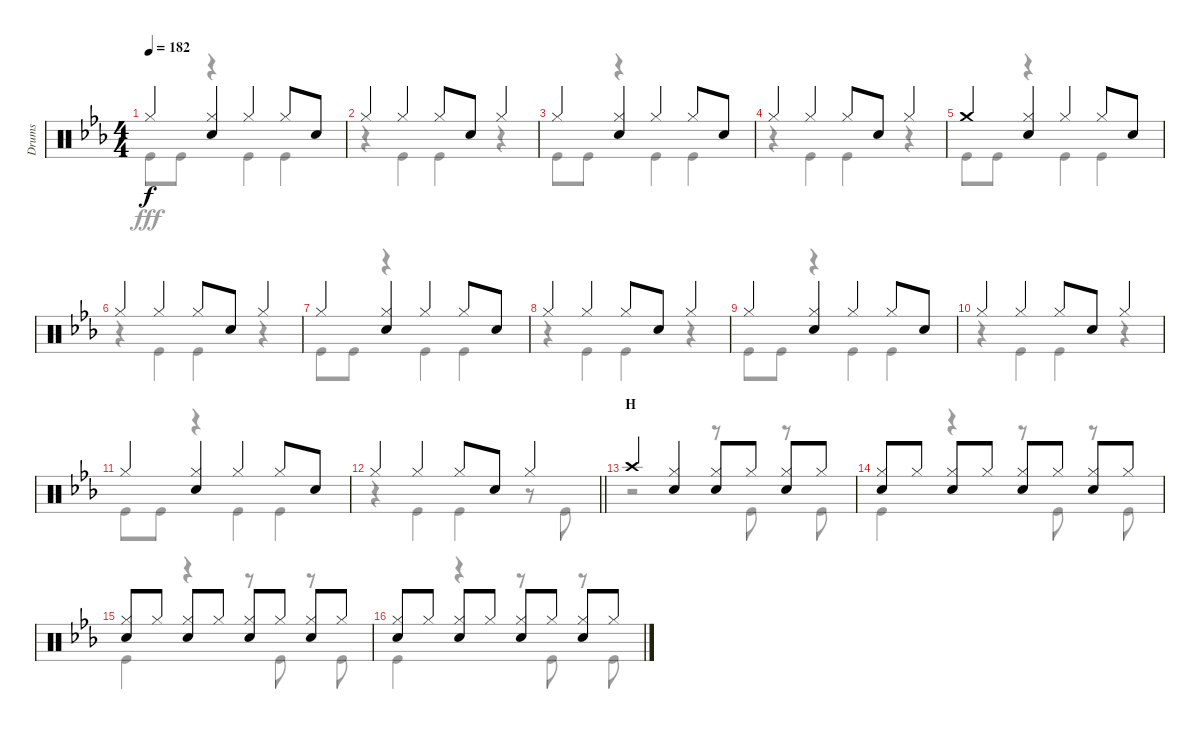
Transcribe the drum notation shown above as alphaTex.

\track ("Drums" "Drums") {instrument percussion}
\staff {score}
\articulation defaults
\voice
\ts (4 4)
\tempo 182
\clef neutral
\ks eb "Hi-Hat (closed)".4{dy f}
("Hi-Hat (closed)" "Snare (hit) 2").4 "Hi-Hat (closed)".4 "Hi-Hat (closed)".8 "Snare (hit) 2".8 |
"Hi-Hat (closed)".4 "Hi-Hat (closed)".4 "Hi-Hat (closed)".8 "Snare (hit) 2".8 "Hi-Hat (closed)".4 |
"Hi-Hat (closed)".4 ("Hi-Hat (closed)" "Snare (hit) 2").4 "Hi-Hat (closed)".4 "Hi-Hat (closed)".8 "Snare (hit) 2".8 |
"Hi-Hat (closed)".4 "Hi-Hat (closed)".4 "Hi-Hat (closed)".8 "Snare (hit) 2".8 "Hi-Hat (closed)".4 |
"Crash medium (hit)".4 ("Hi-Hat (closed)" "Snare (hit) 2").4 "Hi-Hat (closed)".4 "Hi-Hat (closed)".8 "Snare (hit) 2".8 |
"Hi-Hat (closed)".4 "Hi-Hat (closed)".4 "Hi-Hat (closed)".8 "Snare (hit) 2".8 "Hi-Hat (closed)".4 |
"Hi-Hat (closed)".4 ("Hi-Hat (closed)" "Snare (hit) 2").4 "Hi-Hat (closed)".4 "Hi-Hat (closed)".8 "Snare (hit) 2".8 |
"Hi-Hat (closed)".4 "Hi-Hat (closed)".4 "Hi-Hat (closed)".8 "Snare (hit) 2".8 "Hi-Hat (closed)".4 |
"Hi-Hat (closed)".4 ("Hi-Hat (closed)" "Snare (hit) 2").4 "Hi-Hat (closed)".4 "Hi-Hat (closed)".8 "Snare (hit) 2".8 |
"Hi-Hat (closed)".4 "Hi-Hat (closed)".4 "Hi-Hat (closed)".8 "Snare (hit) 2".8 "Hi-Hat (closed)".4 |
"Hi-Hat (closed)".4 ("Hi-Hat (closed)" "Snare (hit) 2").4 "Hi-Hat (closed)".4 "Hi-Hat (closed)".8 "Snare (hit) 2".8 |
\barLineRight lightlight "Hi-Hat (closed)".4 "Hi-Hat (closed)".4 "Hi-Hat (closed)".8 "Snare (hit) 2".8 "Hi-Hat (closed)".4
|
\section ("" "H")
"Crash high (hit)".4 ("Hi-Hat (closed)" "Snare (hit) 2").4 ("Hi-Hat (closed)" "Snare (hit) 2").8 "Hi-Hat (closed)".8 ("Hi-Hat (closed)" "Snare (hit) 2").8 "Hi-Hat (closed)".8 |
("Hi-Hat (closed)" "Snare (hit) 2").8 "Hi-Hat (closed)".8 ("Hi-Hat (closed)" "Snare (hit) 2").8 "Hi-Hat (closed)".8 ("Hi-Hat (closed)" "Snare (hit) 2").8 "Hi-Hat (closed)".8 ("Hi-Hat (closed)" "Snare (hit) 2").8 "Hi-Hat (closed)".8 |
("Hi-Hat (closed)" "Snare (hit) 2").8 "Hi-Hat (closed)".8 ("Hi-Hat (closed)" "Snare (hit) 2").8 "Hi-Hat (closed)".8 ("Hi-Hat (closed)" "Snare (hit) 2").8 "Hi-Hat (closed)".8 ("Hi-Hat (closed)" "Snare (hit) 2").8 "Hi-Hat (closed)".8 |
("Hi-Hat (closed)" "Snare (hit) 2").8 "Hi-Hat (closed)".8 ("Hi-Hat (closed)" "Snare (hit) 2").8 "Hi-Hat (closed)".8 ("Hi-Hat (closed)" "Snare (hit) 2").8 "Hi-Hat (closed)".8 ("Hi-Hat (closed)" "Snare (hit) 2").8 "Hi-Hat (closed)".8
\voice
\clef neutral
\ottava regular
\simile none
\ks eb "Kick (hit)".8{dy fff} "Kick (hit)".8
r.4 "Kick (hit)".4 "Kick (hit)".4 |
r.4 "Kick (hit)".4 "Kick (hit)".4 r.4 |
"Kick (hit)".8 "Kick (hit)".8 r.4 "Kick (hit)".4 "Kick (hit)".4 |
r.4 "Kick (hit)".4 "Kick (hit)".4 r.4 |
"Kick (hit)".8 "Kick (hit)".8 r.4 "Kick (hit)".4 "Kick (hit)".4 |
r.4 "Kick (hit)".4 "Kick (hit)".4 r.4 |
"Kick (hit)".8 "Kick (hit)".8 r.4 "Kick (hit)".4 "Kick (hit)".4 |
r.4 "Kick (hit)".4 "Kick (hit)".4 r.4 |
"Kick (hit)".8 "Kick (hit)".8 r.4 "Kick (hit)".4 "Kick (hit)".4 |
r.4 "Kick (hit)".4 "Kick (hit)".4 r.4 |
"Kick (hit)".8 "Kick (hit)".8 r.4 "Kick (hit)".4 "Kick (hit)".4 |
\barLineRight lightlight
r.4 "Kick (hit)".4 "Kick (hit)".4 r.8 "Kick (hit)".8 |
r.2 r.8 "Kick (hit)".8 r.8 "Kick (hit)".8 |
"Kick (hit)".4 r.4 r.8 "Kick (hit)".8 r.8 "Kick (hit)".8 |
"Kick (hit)".4 r.4 r.8 "Kick (hit)".8 r.8 "Kick (hit)".8 |
"Kick (hit)".4 r.4 r.8 "Kick (hit)".8 r.8 "Kick (hit)".8
